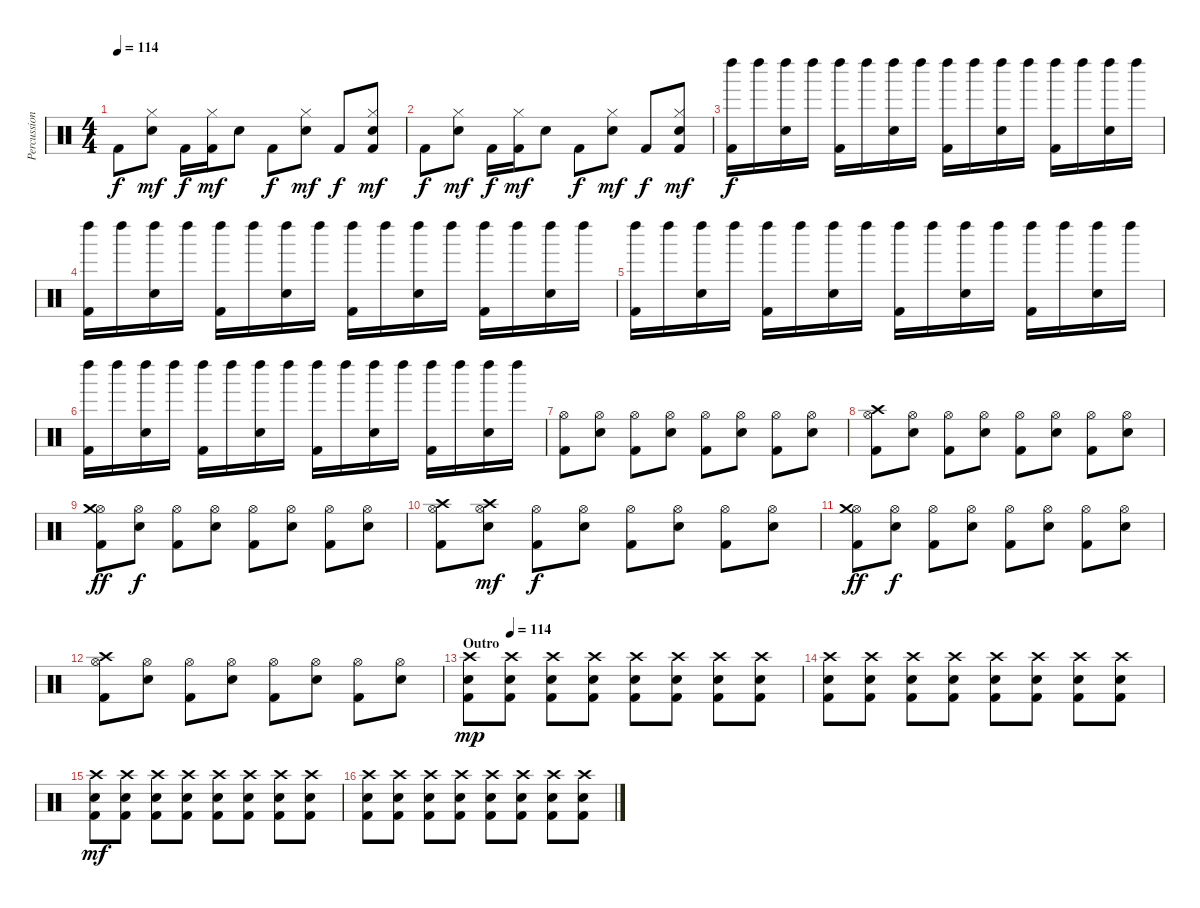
\track ("Percussion" "Percussion") {instrument percussion}
\staff {score}
\articulation defaults
\ts (4 4)
\tempo 114
\clef neutral
\ks c "Kick (hit) 2".8{dy f}
("Hi-Hat (closed)" "Electric Snare (hit)").8{dy mf} "Kick (hit) 2".16{dy f} ("Hi-Hat (closed)" "Kick (hit) 2").16{dy mf} "Electric Snare (hit)".8 "Kick (hit) 2".8{dy f} ("Hi-Hat (closed)" "Electric Snare (hit)").8{dy mf} "Kick (hit) 2".8{dy f} ("Hi-Hat (closed)" "Electric Snare (hit)" "Kick (hit) 2").8{dy mf} |
"Kick (hit) 2".8{dy f} ("Hi-Hat (closed)" "Electric Snare (hit)").8{dy mf} "Kick (hit) 2".16{dy f} ("Hi-Hat (closed)" "Kick (hit) 2").16{dy mf} "Electric Snare (hit)".8 "Kick (hit) 2".8{dy f} ("Hi-Hat (closed)" "Electric Snare (hit)").8{dy mf} "Kick (hit) 2".8{dy f} ("Hi-Hat (closed)" "Electric Snare (hit)" "Kick (hit) 2").8{dy mf} |
("Left Maraca (hit)" "Kick (hit) 2").16{dy f} "Left Maraca (hit)".16 ("Left Maraca (hit)" "Electric Snare (hit)").16 "Left Maraca (hit)".16 ("Left Maraca (hit)" "Kick (hit) 2").16 "Left Maraca (hit)".16 ("Left Maraca (hit)" "Electric Snare (hit)").16 "Left Maraca (hit)".16 ("Left Maraca (hit)" "Kick (hit) 2").16 "Left Maraca (hit)".16 ("Left Maraca (hit)" "Electric Snare (hit)").16 "Left Maraca (hit)".16 ("Left Maraca (hit)" "Kick (hit) 2").16 "Left Maraca (hit)".16 ("Left Maraca (hit)" "Electric Snare (hit)").16 "Left Maraca (hit)".16 |
("Left Maraca (hit)" "Kick (hit) 2").16 "Left Maraca (hit)".16 ("Left Maraca (hit)" "Electric Snare (hit)").16 "Left Maraca (hit)".16 ("Left Maraca (hit)" "Kick (hit) 2").16 "Left Maraca (hit)".16 ("Left Maraca (hit)" "Electric Snare (hit)").16 "Left Maraca (hit)".16 ("Left Maraca (hit)" "Kick (hit) 2").16 "Left Maraca (hit)".16 ("Left Maraca (hit)" "Electric Snare (hit)").16 "Left Maraca (hit)".16 ("Left Maraca (hit)" "Kick (hit) 2").16 "Left Maraca (hit)".16 ("Left Maraca (hit)" "Electric Snare (hit)").16 "Left Maraca (hit)".16 |
("Left Maraca (hit)" "Kick (hit) 2").16 "Left Maraca (hit)".16 ("Left Maraca (hit)" "Electric Snare (hit)").16 "Left Maraca (hit)".16 ("Left Maraca (hit)" "Kick (hit) 2").16 "Left Maraca (hit)".16 ("Left Maraca (hit)" "Electric Snare (hit)").16 "Left Maraca (hit)".16 ("Left Maraca (hit)" "Kick (hit) 2").16 "Left Maraca (hit)".16 ("Left Maraca (hit)" "Electric Snare (hit)").16 "Left Maraca (hit)".16 ("Left Maraca (hit)" "Kick (hit) 2").16 "Left Maraca (hit)".16 ("Left Maraca (hit)" "Electric Snare (hit)").16 "Left Maraca (hit)".16 |
("Left Maraca (hit)" "Kick (hit) 2").16 "Left Maraca (hit)".16 ("Left Maraca (hit)" "Electric Snare (hit)").16 "Left Maraca (hit)".16 ("Left Maraca (hit)" "Kick (hit) 2").16 "Left Maraca (hit)".16 ("Left Maraca (hit)" "Electric Snare (hit)").16 "Left Maraca (hit)".16 ("Left Maraca (hit)" "Kick (hit) 2").16 "Left Maraca (hit)".16 ("Left Maraca (hit)" "Electric Snare (hit)").16 "Left Maraca (hit)".16 ("Left Maraca (hit)" "Kick (hit) 2").16 "Left Maraca (hit)".16 ("Left Maraca (hit)" "Electric Snare (hit)").16 "Left Maraca (hit)".16 |
("Hi-Hat (open)" "Kick (hit) 2").8 ("Hi-Hat (open)" "Electric Snare (hit)").8 ("Hi-Hat (open)" "Kick (hit) 2").8 ("Hi-Hat (open)" "Electric Snare (hit)").8 ("Hi-Hat (open)" "Kick (hit) 2").8 ("Hi-Hat (open)" "Electric Snare (hit)").8 ("Hi-Hat (open)" "Kick (hit) 2").8 ("Hi-Hat (open)" "Electric Snare (hit)").8 |
("Hi-Hat (open)" "Crash high (hit)" "Kick (hit) 2").8 ("Hi-Hat (open)" "Electric Snare (hit)").8 ("Hi-Hat (open)" "Kick (hit) 2").8 ("Hi-Hat (open)" "Electric Snare (hit)").8 ("Hi-Hat (open)" "Kick (hit) 2").8 ("Hi-Hat (open)" "Electric Snare (hit)").8 ("Hi-Hat (open)" "Kick (hit) 2").8 ("Hi-Hat (open)" "Electric Snare (hit)").8 |
("Hi-Hat (open)" "Crash medium (hit)" "Kick (hit) 2").8{dy ff} ("Hi-Hat (open)" "Electric Snare (hit)").8{dy f} ("Hi-Hat (open)" "Kick (hit) 2").8 ("Hi-Hat (open)" "Electric Snare (hit)").8 ("Hi-Hat (open)" "Kick (hit) 2").8 ("Hi-Hat (open)" "Electric Snare (hit)").8 ("Hi-Hat (open)" "Kick (hit) 2").8 ("Hi-Hat (open)" "Electric Snare (hit)").8 |
("Hi-Hat (open)" "Crash high (hit)" "Kick (hit) 2").8 ("Hi-Hat (open)" "Crash high (hit)" "Electric Snare (hit)").8{dy mf} ("Hi-Hat (open)" "Kick (hit) 2").8{dy f} ("Hi-Hat (open)" "Electric Snare (hit)").8 ("Hi-Hat (open)" "Kick (hit) 2").8 ("Hi-Hat (open)" "Electric Snare (hit)").8 ("Hi-Hat (open)" "Kick (hit) 2").8 ("Hi-Hat (open)" "Electric Snare (hit)").8 |
("Hi-Hat (open)" "Crash medium (hit)" "Kick (hit) 2").8{dy ff} ("Hi-Hat (open)" "Electric Snare (hit)").8{dy f} ("Hi-Hat (open)" "Kick (hit) 2").8 ("Hi-Hat (open)" "Electric Snare (hit)").8 ("Hi-Hat (open)" "Kick (hit) 2").8 ("Hi-Hat (open)" "Electric Snare (hit)").8 ("Hi-Hat (open)" "Kick (hit) 2").8 ("Hi-Hat (open)" "Electric Snare (hit)").8 |
("Hi-Hat (open)" "Crash high (hit)" "Kick (hit) 2").8 ("Hi-Hat (open)" "Electric Snare (hit)").8 ("Hi-Hat (open)" "Kick (hit) 2").8 ("Hi-Hat (open)" "Electric Snare (hit)").8 ("Hi-Hat (open)" "Kick (hit) 2").8 ("Hi-Hat (open)" "Electric Snare (hit)").8 ("Hi-Hat (open)" "Kick (hit) 2").8 ("Hi-Hat (open)" "Electric Snare (hit)").8 |
\section ("" "Outro")
\tempo (114 0.125)
("Crash high (hit)" "Electric Snare (hit)" "Kick (hit) 2").8{dy mp} ("Crash high (hit)" "Electric Snare (hit)" "Kick (hit) 2").8 ("Crash high (hit)" "Electric Snare (hit)" "Kick (hit) 2").8 ("Crash high (hit)" "Electric Snare (hit)" "Kick (hit) 2").8 ("Crash high (hit)" "Electric Snare (hit)" "Kick (hit) 2").8 ("Crash high (hit)" "Electric Snare (hit)" "Kick (hit) 2").8 ("Crash high (hit)" "Electric Snare (hit)" "Kick (hit) 2").8 ("Crash high (hit)" "Electric Snare (hit)" "Kick (hit) 2").8 |
("Crash high (hit)" "Electric Snare (hit)" "Kick (hit) 2").8 ("Crash high (hit)" "Electric Snare (hit)" "Kick (hit) 2").8 ("Crash high (hit)" "Electric Snare (hit)" "Kick (hit) 2").8 ("Crash high (hit)" "Electric Snare (hit)" "Kick (hit) 2").8 ("Crash high (hit)" "Electric Snare (hit)" "Kick (hit) 2").8 ("Crash high (hit)" "Electric Snare (hit)" "Kick (hit) 2").8 ("Crash high (hit)" "Electric Snare (hit)" "Kick (hit) 2").8 ("Crash high (hit)" "Electric Snare (hit)" "Kick (hit) 2").8 |
("Crash high (hit)" "Electric Snare (hit)" "Kick (hit) 2").8{dy mf} ("Crash high (hit)" "Electric Snare (hit)" "Kick (hit) 2").8 ("Crash high (hit)" "Electric Snare (hit)" "Kick (hit) 2").8 ("Crash high (hit)" "Electric Snare (hit)" "Kick (hit) 2").8 ("Crash high (hit)" "Electric Snare (hit)" "Kick (hit) 2").8 ("Crash high (hit)" "Electric Snare (hit)" "Kick (hit) 2").8 ("Crash high (hit)" "Electric Snare (hit)" "Kick (hit) 2").8 ("Crash high (hit)" "Electric Snare (hit)" "Kick (hit) 2").8 |
("Crash high (hit)" "Electric Snare (hit)" "Kick (hit) 2").8 ("Crash high (hit)" "Electric Snare (hit)" "Kick (hit) 2").8 ("Crash high (hit)" "Electric Snare (hit)" "Kick (hit) 2").8 ("Crash high (hit)" "Electric Snare (hit)" "Kick (hit) 2").8 ("Crash high (hit)" "Electric Snare (hit)" "Kick (hit) 2").8 ("Crash high (hit)" "Electric Snare (hit)" "Kick (hit) 2").8 ("Crash high (hit)" "Electric Snare (hit)" "Kick (hit) 2").8 ("Crash high (hit)" "Electric Snare (hit)" "Kick (hit) 2").8
